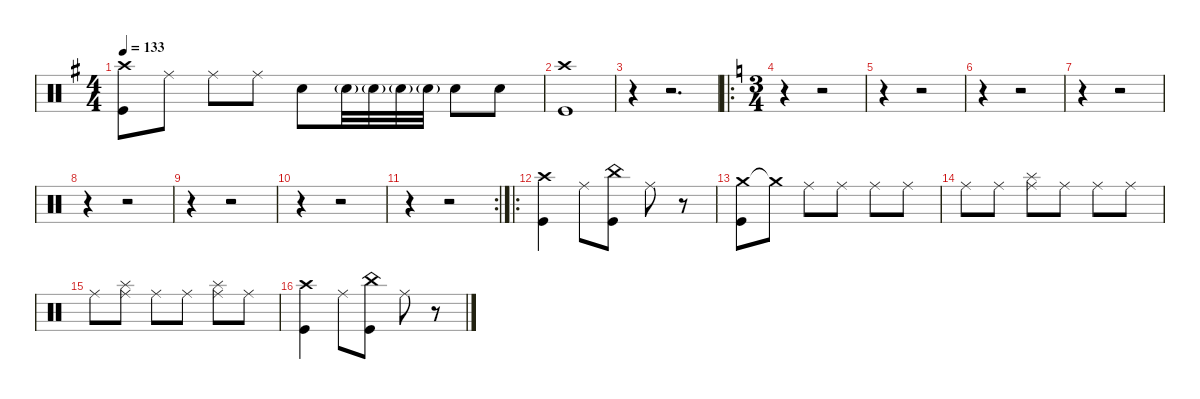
\defaultSystemsLayout 4
\hideDynamics
\bracketExtendMode nobrackets
\singleTrackTrackNamePolicy hidden
\multiTrackTrackNamePolicy hidden
\firstSystemTrackNameMode fullname
\firstSystemTrackNameOrientation horizontal
\otherSystemsTrackNameOrientation horizontal
\track ("Drums" "drm.") {instrument percussion}
\staff {score}
\articulation defaults
\ts (4 4)
\tempo 133
\clef neutral
\ks eminor
("Crash high (hit)"{acc forcenatural} "Kick (hit)"{acc forcenatural}).8{dy f beam Down} "Ride (middle)"{acc forcenatural}.8{beam Down} "Ride (middle)"{acc forcenatural}.8{beam Down} "Ride (middle)"{acc forcenatural}.8{beam Down} "Snare (hit) 2"{acc forcenatural}.8{beam Down} "Snare (hit) 2"{g acc forcenatural}.32{dy mf beam Down} "Snare (hit) 2"{g acc forcenatural}.32{beam Down} "Snare (hit) 2"{g acc forcenatural}.32{beam Down} "Snare (hit) 2"{g acc forcenatural}.32{beam Down} "Snare (hit) 2"{acc forcenatural}.8{dy f beam Down} "Snare (hit) 2"{acc forcenatural}.8{beam Down} |
("Crash high (hit)"{acc forcenatural} "Kick (hit)"{acc forcenatural}).1{dy fff beam Down} |
r.4{beam Down} r.2{d beam Down} |
\ro
\ts (3 4)
\beaming (8 2 2 2)
\ks aminor
r.4{beam Down} r.2{beam Down} |
r.4{beam Down} r.2{beam Down} |
r.4{beam Down} r.2{beam Down} |
r.4{beam Down} r.2{beam Down} |
r.4{beam Down} r.2{beam Down} |
r.4{beam Down} r.2{beam Down} |
r.4{beam Down} r.2{beam Down} |
\rc 2
r.4{beam Down} r.2{beam Down} |
\ro
("Crash high (hit)" "Kick (hit)").4{dy p beam Down} "Ride (middle)".8{dy f beam Down} ("China (hit)" "Kick (hit)").8{dy mf beam Down} "Ride (middle)".8{dy f beam Down} r.8{beam Down} |
("Crash medium (hit)" "Kick (hit)").8{dy mp beam Down} "Crash medium (hit)"{t}.8{dy f beam Down} "Ride (middle)".8{beam Down} "Ride (middle)".8{dy pp beam Down} "Ride (middle)".8{dy p beam Down} "Ride (middle)".8{dy f beam Down} |
"Ride (middle)".8{dy p beam Down} "Ride (middle)".8{dy pp beam Down} ("Ride (middle)" "Splash (hit)").8{dy f beam Down} "Ride (middle)".8{dy p beam Down} "Ride (middle)".8{dy mp beam Down} "Ride (middle)".8{dy mf beam Down} |
"Ride (middle)".8{dy mp beam Down} ("Ride (middle)" "Splash (hit)").8{dy f beam Down} "Ride (middle)".8{dy mp beam Down} "Ride (middle)".8{dy p beam Down} ("Ride (middle)" "Splash (hit)").8{dy f beam Down} "Ride (middle)".8{beam Down} |
("Crash high (hit)" "Kick (hit)").4{dy p beam Down} "Ride (middle)".8{dy f beam Down} ("China (hit)" "Kick (hit)").8{dy mf beam Down} "Ride (middle)".8{dy f beam Down} r.8{beam Down}
